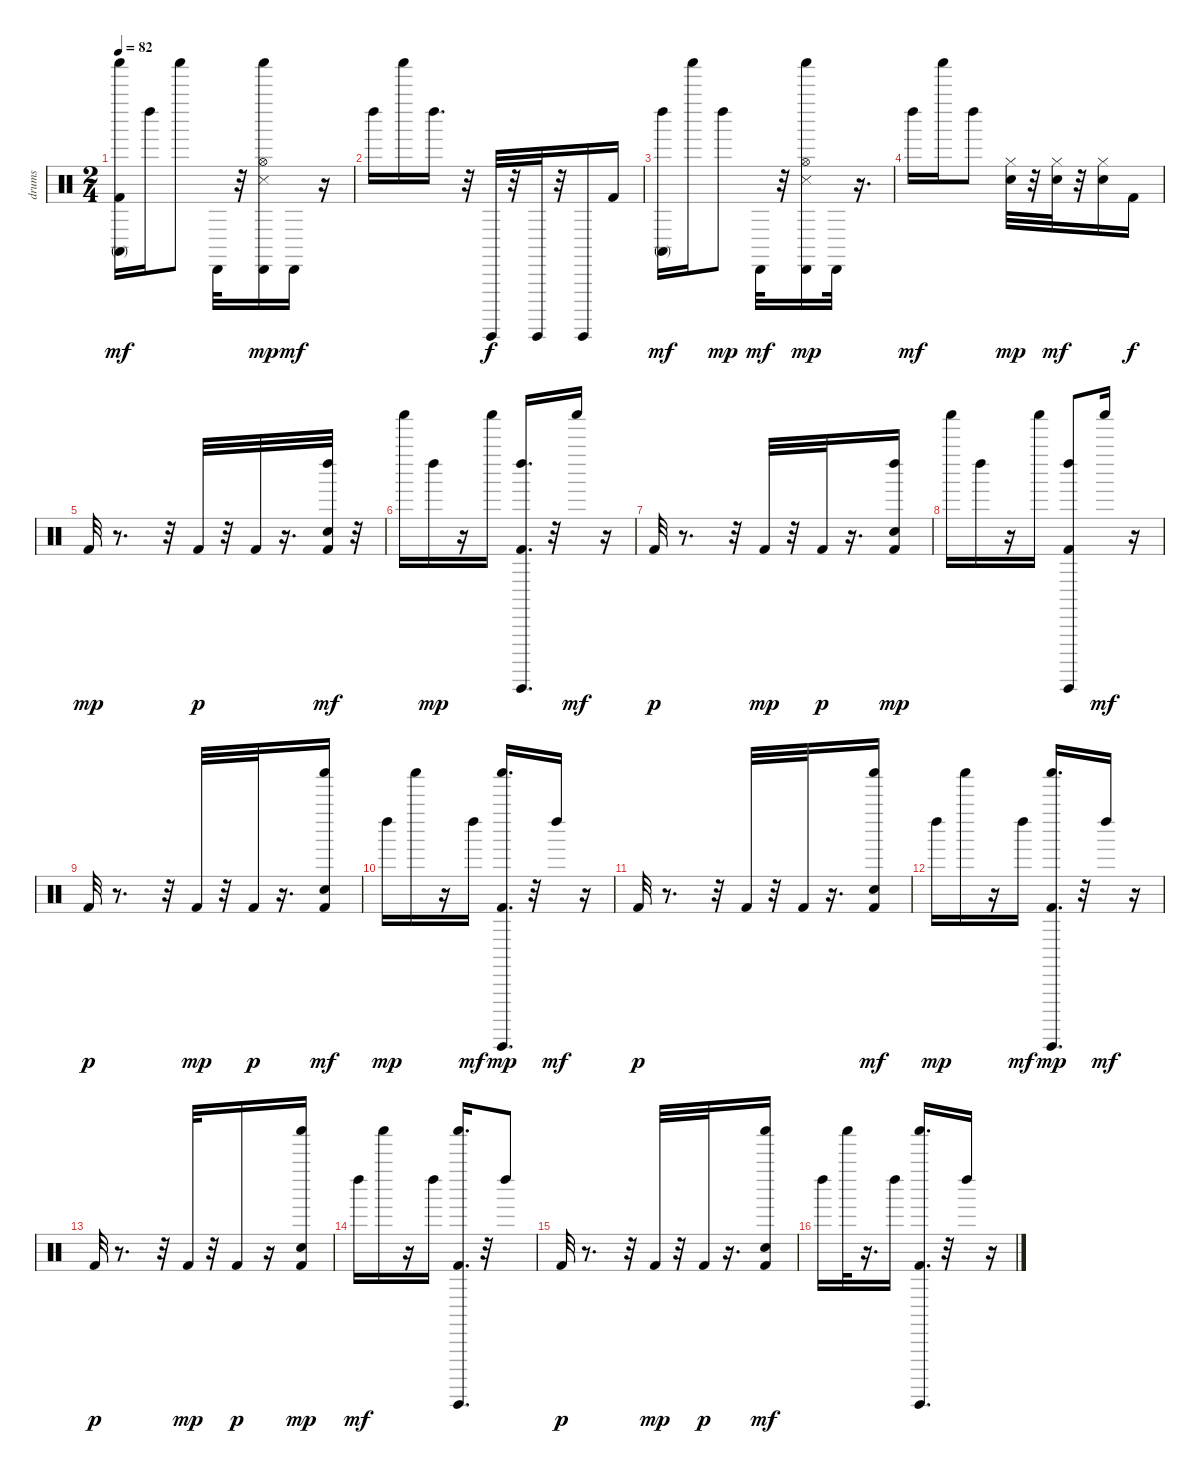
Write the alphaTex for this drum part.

\track ("drums" "drums") {instrument percussion}
\staff {score}
\articulation defaults
\ts (2 4)
\tempo 82
\clef neutral
\ks c
("Kick (hit) 2" "Shaker (hit)" "Conga high (mute)").16{dy mf} "Left Maraca (hit)".16 "Shaker (hit)".8 "Cabasa (hit)".32 r.32 ("Snare (side stick) 3" "Shaker (hit)" "Hi-Hat (open)" "Cabasa (hit)").16{dy mp} "Cabasa (hit)".16{dy mf} r.16 |
"Left Maraca (hit)".16 "Shaker (hit)".16 "Left Maraca (hit)".16{d} r.32 "Guiro (hit)".32{dy f} r.32 "Guiro (hit)".32 r.32 "Guiro (hit)".16 "Kick (hit) 2".16 |
("Left Maraca (hit)" "Conga high (mute)").16{dy mf} "Shaker (hit)".16 "Left Maraca (hit)".8{dy mp} "Cabasa (hit)".32{dy mf} r.32 ("Snare (side stick) 3" "Shaker (hit)" "Hi-Hat (open)" "Cabasa (hit)").16{dy mp} "Cabasa (hit)".32 r.16{d} |
"Left Maraca (hit)".16{dy mf} "Shaker (hit)".16 "Left Maraca (hit)".8 ("Hand Clap (hit)" "Hi-Hat (closed)").32{dy mp} r.32 ("Hi-Hat (closed)" "Hand Clap (hit)").32{dy mf} r.32 ("Hi-Hat (closed)" "Hand Clap (hit)").16 "Kick (hit) 2".16{dy f} |
"Kick (hit) 2".32{dy mp} r.8{d} r.32 "Kick (hit) 2".32{dy p} r.32 "Kick (hit) 2".32 r.16{d} ("Kick (hit) 2" "Hand Clap (hit)" "Left Maraca (hit)").32{dy mf} r.32 |
"Shaker (hit)".16 "Left Maraca (hit)".16{dy mp} r.16 "Shaker (hit)".16 ("Kick (hit) 2" "Guiro (hit)" "Left Maraca (hit)").16{d} r.32 "Shaker (hit)".16{dy mf} r.16 |
"Kick (hit) 2".32{dy p} r.8{d} r.32 "Kick (hit) 2".32{dy mp} r.32 "Kick (hit) 2".32{dy p} r.16{d} ("Kick (hit) 2" "Hand Clap (hit)" "Left Maraca (hit)").16{dy mp} |
"Shaker (hit)".16 "Left Maraca (hit)".16 r.16 "Shaker (hit)".16 ("Kick (hit) 2" "Guiro (hit)" "Left Maraca (hit)").8 "Shaker (hit)".16{dy mf} r.16 |
"Kick (hit) 2".32{dy p} r.8{d} r.32 "Kick (hit) 2".32{dy mp} r.32 "Kick (hit) 2".32{dy p} r.16{d} ("Kick (hit) 2" "Hand Clap (hit)" "Shaker (hit)").16{dy mf} |
"Left Maraca (hit)".16{dy mp} "Shaker (hit)".16 r.16 "Left Maraca (hit)".16{dy mf} ("Kick (hit) 2" "Guiro (hit)" "Shaker (hit)").16{d dy mp} r.32 "Left Maraca (hit)".16{dy mf} r.16 |
"Kick (hit) 2".32{dy p} r.8{d} r.32 "Kick (hit) 2".32 r.32 "Kick (hit) 2".32 r.16{d} ("Kick (hit) 2" "Hand Clap (hit)" "Shaker (hit)").16{dy mf} |
"Left Maraca (hit)".16{dy mp} "Shaker (hit)".16 r.16 "Left Maraca (hit)".16{dy mf} ("Kick (hit) 2" "Guiro (hit)" "Shaker (hit)").16{d dy mp} r.32 "Left Maraca (hit)".16{dy mf} r.16 |
"Kick (hit) 2".32{dy p} r.8{d} r.32 "Kick (hit) 2".32{dy mp} r.32 "Kick (hit) 2".16{dy p} r.16 ("Kick (hit) 2" "Hand Clap (hit)" "Shaker (hit)").16{dy mp} |
"Left Maraca (hit)".16{dy mf} "Shaker (hit)".16 r.16 "Left Maraca (hit)".16 ("Kick (hit) 2" "Guiro (hit)" "Shaker (hit)").16{d} r.32 "Left Maraca (hit)".8 |
"Kick (hit) 2".32{dy p} r.8{d} r.32 "Kick (hit) 2".32{dy mp} r.32 "Kick (hit) 2".32{dy p} r.16{d} ("Kick (hit) 2" "Hand Clap (hit)" "Shaker (hit)").16{dy mf} |
"Left Maraca (hit)".16 "Shaker (hit)".32 r.16{d} "Left Maraca (hit)".16 ("Kick (hit) 2" "Guiro (hit)" "Shaker (hit)").16{d} r.32 "Left Maraca (hit)".16 r.16
